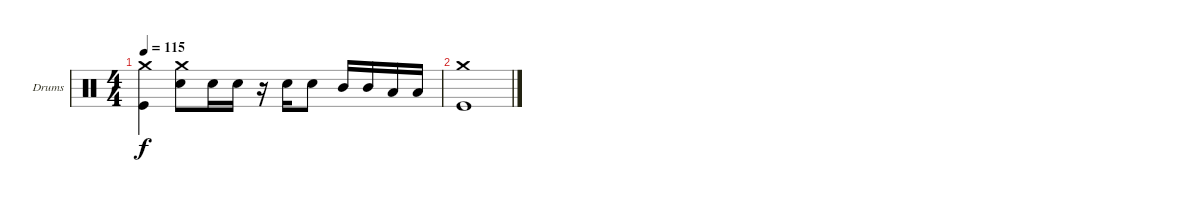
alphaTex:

\bracketExtendMode groupsimilarinstruments
\firstSystemTrackNameOrientation horizontal
\otherSystemsTrackNameOrientation horizontal
\track ("Drumkit" "Drums") {instrument percussion}
\staff {score}
\articulation defaults
\ts (4 4)
\tempo 115
\clef neutral
\ks c
("Crash medium (hit)" "Kick (hit)").4{dy f} ("Crash medium (hit)" "Snare (hit) 2").8 "Snare (hit) 2".16 "Snare (hit) 2".16 r.16 "Snare (hit) 2".16 "Snare (hit) 2".8 "Mid Tom (hit)".16 "Mid Tom (hit)".16 "Low Tom (hit)".16 "Low Tom (hit)".16 |
("Crash medium (hit)" "Kick (hit)").1
